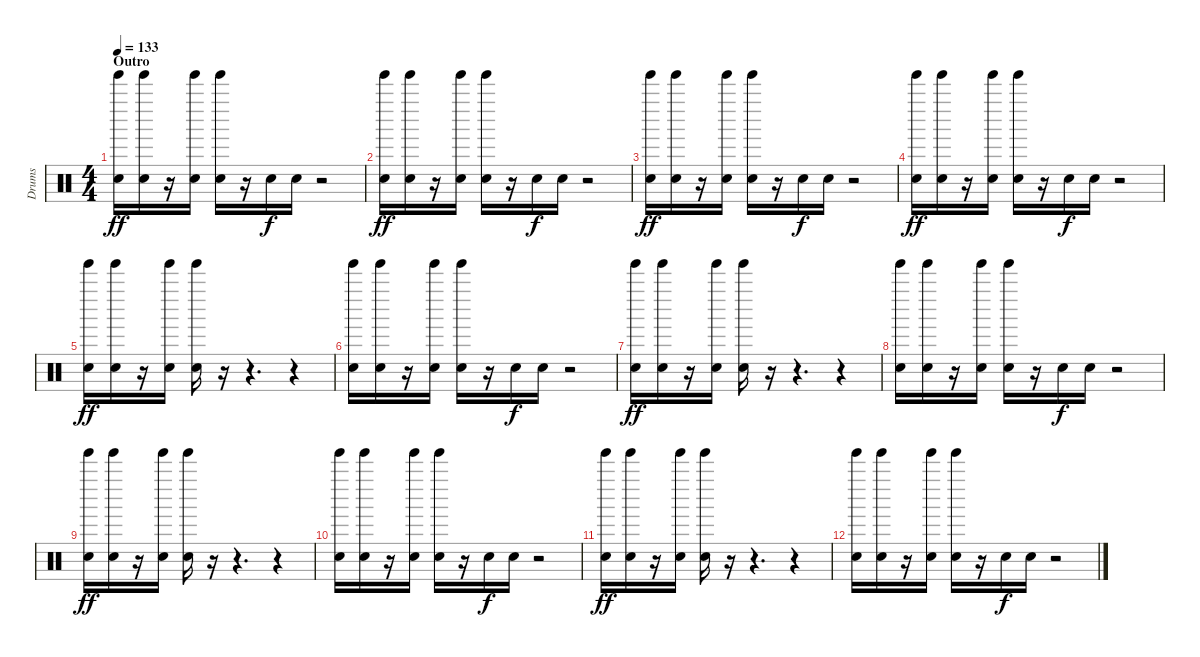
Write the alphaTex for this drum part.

\track ("Drums" "Drums") {instrument percussion}
\staff {score}
\articulation defaults
\ts (4 4)
\section ("" "Outro")
\tempo 133
\clef neutral
\ks c
("Tinkle Bell (hit)" "Snare (hit) 2").16{dy ff} ("Tinkle Bell (hit)" "Snare (hit) 2").16 r.16 ("Tinkle Bell (hit)" "Snare (hit) 2").16 ("Tinkle Bell (hit)" "Snare (hit) 2").16 r.16 "Snare (hit) 2".16{dy f} "Snare (hit) 2".16 r.2 |
("Tinkle Bell (hit)" "Snare (hit) 2").16{dy ff} ("Tinkle Bell (hit)" "Snare (hit) 2").16 r.16 ("Tinkle Bell (hit)" "Snare (hit) 2").16 ("Tinkle Bell (hit)" "Snare (hit) 2").16 r.16 "Snare (hit) 2".16{dy f} "Snare (hit) 2".16 r.2 |
("Tinkle Bell (hit)" "Snare (hit) 2").16{dy ff} ("Tinkle Bell (hit)" "Snare (hit) 2").16 r.16 ("Tinkle Bell (hit)" "Snare (hit) 2").16 ("Tinkle Bell (hit)" "Snare (hit) 2").16 r.16 "Snare (hit) 2".16{dy f} "Snare (hit) 2".16 r.2 |
("Tinkle Bell (hit)" "Snare (hit) 2").16{dy ff} ("Tinkle Bell (hit)" "Snare (hit) 2").16 r.16 ("Tinkle Bell (hit)" "Snare (hit) 2").16 ("Tinkle Bell (hit)" "Snare (hit) 2").16 r.16 "Snare (hit) 2".16{dy f} "Snare (hit) 2".16 r.2 |
("Tinkle Bell (hit)" "Snare (hit) 2").16{dy ff} ("Tinkle Bell (hit)" "Snare (hit) 2").16 r.16 ("Tinkle Bell (hit)" "Snare (hit) 2").16 ("Tinkle Bell (hit)" "Snare (hit) 2").16 r.16 r.4{d} r.4 |
("Tinkle Bell (hit)" "Snare (hit) 2").16 ("Tinkle Bell (hit)" "Snare (hit) 2").16 r.16 ("Tinkle Bell (hit)" "Snare (hit) 2").16 ("Tinkle Bell (hit)" "Snare (hit) 2").16 r.16 "Snare (hit) 2".16{dy f} "Snare (hit) 2".16 r.2 |
("Tinkle Bell (hit)" "Snare (hit) 2").16{dy ff} ("Tinkle Bell (hit)" "Snare (hit) 2").16 r.16 ("Tinkle Bell (hit)" "Snare (hit) 2").16 ("Tinkle Bell (hit)" "Snare (hit) 2").16 r.16 r.4{d} r.4 |
("Tinkle Bell (hit)" "Snare (hit) 2").16 ("Tinkle Bell (hit)" "Snare (hit) 2").16 r.16 ("Tinkle Bell (hit)" "Snare (hit) 2").16 ("Tinkle Bell (hit)" "Snare (hit) 2").16 r.16 "Snare (hit) 2".16{dy f} "Snare (hit) 2".16 r.2 |
("Tinkle Bell (hit)" "Snare (hit) 2").16{dy ff} ("Tinkle Bell (hit)" "Snare (hit) 2").16 r.16 ("Tinkle Bell (hit)" "Snare (hit) 2").16 ("Tinkle Bell (hit)" "Snare (hit) 2").16 r.16 r.4{d} r.4 |
("Tinkle Bell (hit)" "Snare (hit) 2").16 ("Tinkle Bell (hit)" "Snare (hit) 2").16 r.16 ("Tinkle Bell (hit)" "Snare (hit) 2").16 ("Tinkle Bell (hit)" "Snare (hit) 2").16 r.16 "Snare (hit) 2".16{dy f} "Snare (hit) 2".16 r.2 |
("Tinkle Bell (hit)" "Snare (hit) 2").16{dy ff} ("Tinkle Bell (hit)" "Snare (hit) 2").16 r.16 ("Tinkle Bell (hit)" "Snare (hit) 2").16 ("Tinkle Bell (hit)" "Snare (hit) 2").16 r.16 r.4{d} r.4 |
("Tinkle Bell (hit)" "Snare (hit) 2").16 ("Tinkle Bell (hit)" "Snare (hit) 2").16 r.16 ("Tinkle Bell (hit)" "Snare (hit) 2").16 ("Tinkle Bell (hit)" "Snare (hit) 2").16 r.16 "Snare (hit) 2".16{dy f} "Snare (hit) 2".16 r.2
